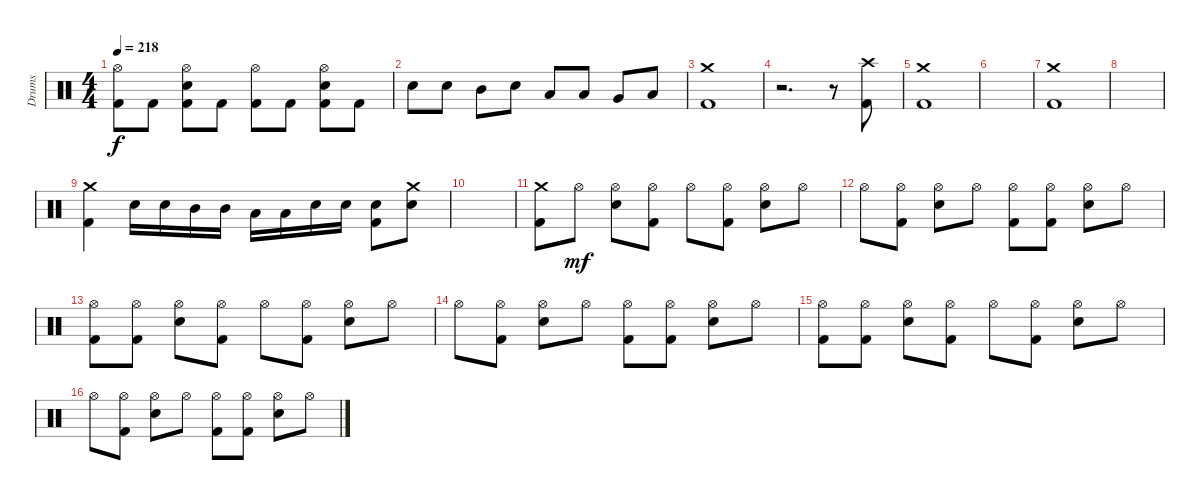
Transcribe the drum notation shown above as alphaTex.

\track ("Drums" "Drums") {instrument percussion}
\staff {score}
\articulation defaults
\ts (4 4)
\tempo 218
\clef neutral
\ks c
("Hi-Hat (open)" "Kick (hit) 2").8{dy f} "Kick (hit) 2".8 ("Hi-Hat (open)" "Snare (hit) 2" "Kick (hit) 2").8 "Kick (hit) 2".8 ("Hi-Hat (open)" "Kick (hit) 2").8 "Kick (hit) 2".8 ("Hi-Hat (open)" "Snare (hit) 2" "Kick (hit) 2").8 "Kick (hit) 2".8 |
"Snare (hit) 2".8 "Snare (hit) 2".8 "Mid Tom (hit)".8 "Snare (hit) 2".8 "Low Tom (hit)".8 "Low Tom (hit)".8 "Very Low Tom (hit)".8 "Low Floor Tom (hit)".8 |
("Crash medium (hit)" "Kick (hit) 2").1 |
r.2{d} r.8 ("Crash high (hit)" "Kick (hit) 2").8 |
("Crash medium (hit)" "Kick (hit) 2").1 |
|
("Crash medium (hit)" "Kick (hit) 2").1 |
|
("Crash medium (hit)" "Kick (hit) 2").4 "Snare (hit) 2".16 "Snare (hit) 2".16 "Mid Tom (hit)".16 "Mid Tom (hit)".16 "Low Tom (hit)".16 "Low Tom (hit)".16 "Snare (hit) 2".16 "Snare (hit) 2".16 ("Snare (hit) 2" "Kick (hit) 2").8 ("Crash medium (hit)" "Snare (hit) 2").8 |
|
("Crash medium (hit)" "Kick (hit) 2").8 "Hi-Hat (open)".8{dy mf} ("Hi-Hat (open)" "Snare (hit) 2").8 ("Hi-Hat (open)" "Kick (hit) 2").8 "Hi-Hat (open)".8 ("Hi-Hat (open)" "Kick (hit) 2").8 ("Hi-Hat (open)" "Snare (hit) 2").8 "Hi-Hat (open)".8 |
"Hi-Hat (open)".8 ("Hi-Hat (open)" "Kick (hit) 2").8 ("Hi-Hat (open)" "Snare (hit) 2").8 "Hi-Hat (open)".8 ("Hi-Hat (open)" "Kick (hit) 2").8 ("Hi-Hat (open)" "Kick (hit) 2").8 ("Hi-Hat (open)" "Snare (hit) 2").8 "Hi-Hat (open)".8 |
("Hi-Hat (open)" "Kick (hit) 2").8 ("Hi-Hat (open)" "Kick (hit) 2").8 ("Hi-Hat (open)" "Snare (hit) 2").8 ("Hi-Hat (open)" "Kick (hit) 2").8 "Hi-Hat (open)".8 ("Hi-Hat (open)" "Kick (hit) 2").8 ("Hi-Hat (open)" "Snare (hit) 2").8 "Hi-Hat (open)".8 |
"Hi-Hat (open)".8 ("Hi-Hat (open)" "Kick (hit) 2").8 ("Hi-Hat (open)" "Snare (hit) 2").8 "Hi-Hat (open)".8 ("Hi-Hat (open)" "Kick (hit) 2").8 ("Hi-Hat (open)" "Kick (hit) 2").8 ("Hi-Hat (open)" "Snare (hit) 2").8 "Hi-Hat (open)".8 |
("Hi-Hat (open)" "Kick (hit) 2").8 ("Hi-Hat (open)" "Kick (hit) 2").8 ("Hi-Hat (open)" "Snare (hit) 2").8 ("Hi-Hat (open)" "Kick (hit) 2").8 "Hi-Hat (open)".8 ("Hi-Hat (open)" "Kick (hit) 2").8 ("Hi-Hat (open)" "Snare (hit) 2").8 "Hi-Hat (open)".8 |
"Hi-Hat (open)".8 ("Hi-Hat (open)" "Kick (hit) 2").8 ("Hi-Hat (open)" "Snare (hit) 2").8 "Hi-Hat (open)".8 ("Hi-Hat (open)" "Kick (hit) 2").8 ("Hi-Hat (open)" "Kick (hit) 2").8 ("Hi-Hat (open)" "Snare (hit) 2").8 "Hi-Hat (open)".8
